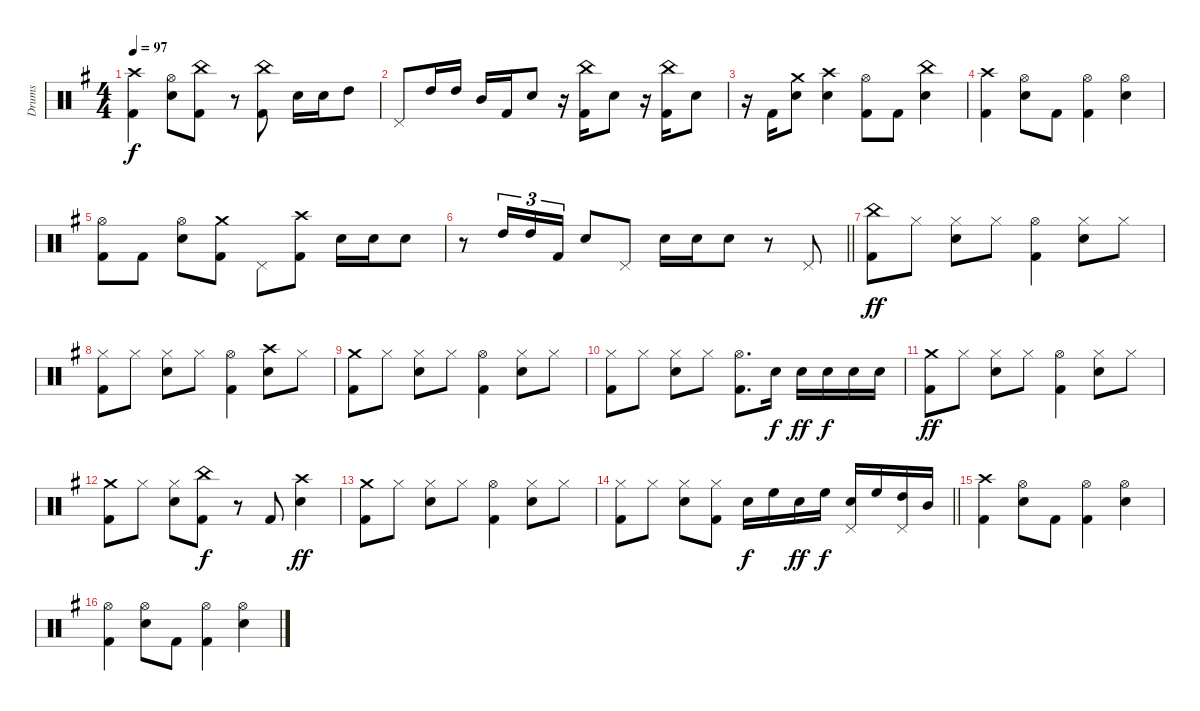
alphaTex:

\track ("Drums" "Drums") {instrument percussion}
\staff {score}
\articulation defaults
\ts (4 4)
\tempo 97
\clef neutral
\ks g
("Crash high (hit)" "Kick (hit) 2").4{dy f} ("Hi-Hat (open)" "Electric Snare (hit)").8 ("Kick (hit) 2" "China (hit)").8 r.8 ("Kick (hit) 2" "China (hit)").8 "Electric Snare (hit)".16 "Electric Snare (hit)".16 "High Tom (hit)".8 |
"Pedal Hi-Hat (hit)".8 "High Tom (hit)".16 "High Tom (hit)".16 "Mid Tom (hit)".16 "Kick (hit) 2".16 "Electric Snare (hit)".8 r.16 ("Kick (hit) 2" "China (hit)").16 "Electric Snare (hit)".8 r.16 ("Kick (hit) 2" "China (hit)").16 "Electric Snare (hit)".8 |
r.16 "Kick (hit) 2".16 ("Electric Snare (hit)" "Crash medium (hit)").8 ("Electric Snare (hit)" "Crash high (hit)").4 ("Kick (hit) 2" "Hi-Hat (open)").8 "Kick (hit) 2".8 ("Electric Snare (hit)" "China (hit)").4 |
("Crash high (hit)" "Kick (hit) 2").4 ("Hi-Hat (open)" "Electric Snare (hit)").8 "Kick (hit) 2".8 ("Hi-Hat (open)" "Kick (hit) 2").4 ("Hi-Hat (open)" "Electric Snare (hit)").4 |
("Hi-Hat (open)" "Kick (hit) 2").8 "Kick (hit) 2".8 ("Hi-Hat (open)" "Electric Snare (hit)").8 ("Kick (hit) 2" "Crash medium (hit)").8 "Pedal Hi-Hat (hit)".8 ("Kick (hit) 2" "Crash high (hit)").8 "Electric Snare (hit)".16 "Electric Snare (hit)".16 "Electric Snare (hit)".8 |
\barLineRight lightlight
r.8 "High Tom (hit)".16{tu (3 2)} "High Tom (hit)".16{tu (3 2)} "Kick (hit) 2".16{tu (3 2)} "Electric Snare (hit)".8 "Pedal Hi-Hat (hit)".8 "Electric Snare (hit)".16 "Electric Snare (hit)".16 "Electric Snare (hit)".8 r.8 "Pedal Hi-Hat (hit)".8 |
("China (hit)" "Kick (hit) 2").8{dy ff} "Hi-Hat (closed)".8 ("Electric Snare (hit)" "Hi-Hat (closed)").8 "Hi-Hat (closed)".8 ("Hi-Hat (open)" "Kick (hit) 2").4 ("Hi-Hat (closed)" "Electric Snare (hit)").8 "Hi-Hat (closed)".8 |
("Hi-Hat (closed)" "Kick (hit) 2").8 "Hi-Hat (closed)".8 ("Electric Snare (hit)" "Hi-Hat (closed)").8 "Hi-Hat (closed)".8 ("Hi-Hat (open)" "Kick (hit) 2").4 ("Crash high (hit)" "Electric Snare (hit)").8 "Hi-Hat (closed)".8 |
("Crash medium (hit)" "Kick (hit) 2").8 "Hi-Hat (closed)".8 ("Electric Snare (hit)" "Hi-Hat (closed)").8 "Hi-Hat (closed)".8 ("Hi-Hat (open)" "Kick (hit) 2").4 ("Hi-Hat (closed)" "Electric Snare (hit)").8 "Hi-Hat (closed)".8 |
("Hi-Hat (closed)" "Kick (hit) 2").8 "Hi-Hat (closed)".8 ("Electric Snare (hit)" "Hi-Hat (closed)").8 "Hi-Hat (closed)".8 ("Hi-Hat (open)" "Kick (hit) 2").8{d} "Electric Snare (hit)".16{dy f} "Electric Snare (hit)".16{dy ff} "Electric Snare (hit)".16{dy f} "Electric Snare (hit)".16 "Electric Snare (hit)".16 |
("Crash medium (hit)" "Kick (hit) 2").8{dy ff} "Hi-Hat (closed)".8 ("Electric Snare (hit)" "Hi-Hat (closed)").8 "Hi-Hat (closed)".8 ("Hi-Hat (open)" "Kick (hit) 2").4 ("Hi-Hat (closed)" "Electric Snare (hit)").8 "Hi-Hat (closed)".8 |
("Crash medium (hit)" "Kick (hit) 2").8 "Hi-Hat (closed)".8 ("Electric Snare (hit)" "Hi-Hat (closed)").8 ("China (hit)" "Kick (hit) 2").8{dy f} r.8 "Kick (hit) 2".8 ("Crash high (hit)" "Electric Snare (hit)").4{dy ff} |
("Crash medium (hit)" "Kick (hit) 2").8 "Hi-Hat (closed)".8 ("Electric Snare (hit)" "Hi-Hat (closed)").8 "Hi-Hat (closed)".8 ("Hi-Hat (open)" "Kick (hit) 2").4 ("Hi-Hat (closed)" "Electric Snare (hit)").8 "Hi-Hat (closed)".8 |
\barLineRight lightlight
("Hi-Hat (closed)" "Kick (hit) 2").8 "Hi-Hat (closed)".8 ("Electric Snare (hit)" "Hi-Hat (closed)").8 ("Hi-Hat (closed)" "Kick (hit) 2").8 "Electric Snare (hit)".16{dy f} "High Floor Tom (hit)".16 "Electric Snare (hit)".16{dy ff} "High Floor Tom (hit)".16{dy f} ("Electric Snare (hit)" "Pedal Hi-Hat (hit)").16 "High Floor Tom (hit)".16 ("High Tom (hit)" "Pedal Hi-Hat (hit)").16 "Mid Tom (hit)".16 |
("Crash high (hit)" "Kick (hit) 2").4 ("Hi-Hat (open)" "Electric Snare (hit)").8 "Kick (hit) 2".8 ("Hi-Hat (open)" "Kick (hit) 2").4 ("Hi-Hat (open)" "Electric Snare (hit)").4 |
("Hi-Hat (open)" "Kick (hit) 2").4 ("Hi-Hat (open)" "Electric Snare (hit)").8 "Kick (hit) 2".8 ("Hi-Hat (open)" "Kick (hit) 2").4 ("Hi-Hat (open)" "Electric Snare (hit)").4
